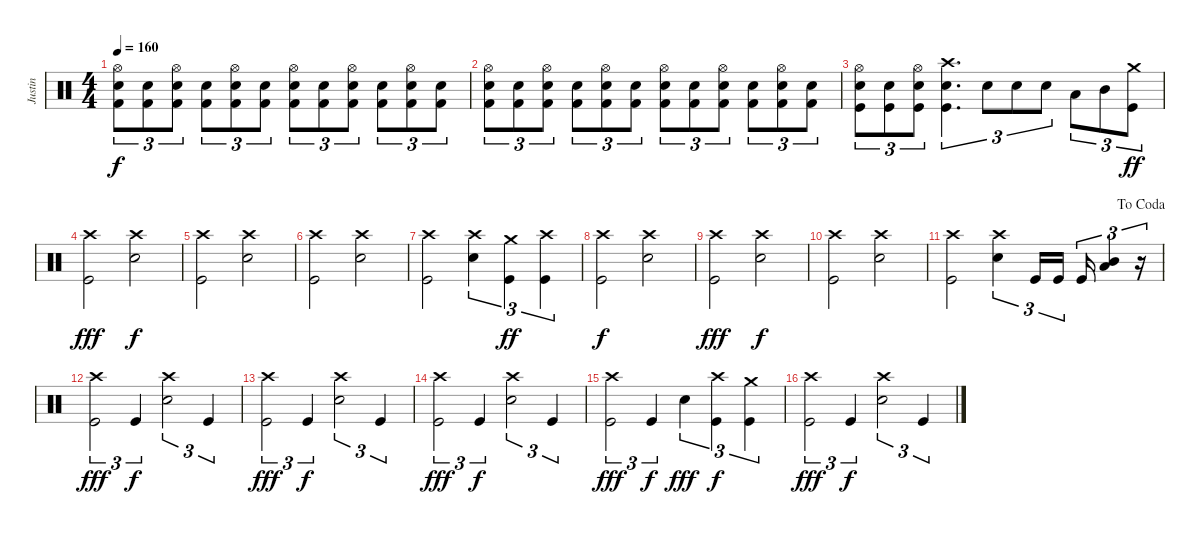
\track ("Justin" "Justin") {instrument percussion}
\staff {score}
\articulation defaults
\ts (4 4)
\tempo 160
\clef neutral
\ks c
("Hi-Hat (open)" "Snare (hit) 2" "Kick (hit) 2").8{tu (3 2) dy f} ("Snare (hit) 2" "Kick (hit) 2").8{tu (3 2)} ("Hi-Hat (open)" "Snare (hit) 2" "Kick (hit) 2").8{tu (3 2)} ("Snare (hit) 2" "Kick (hit) 2").8{tu (3 2)} ("Hi-Hat (open)" "Snare (hit) 2" "Kick (hit) 2").8{tu (3 2)} ("Snare (hit) 2" "Kick (hit) 2").8{tu (3 2)} ("Hi-Hat (open)" "Snare (hit) 2" "Kick (hit) 2").8{tu (3 2)} ("Snare (hit) 2" "Kick (hit) 2").8{tu (3 2)} ("Hi-Hat (open)" "Snare (hit) 2" "Kick (hit) 2").8{tu (3 2)} ("Snare (hit) 2" "Kick (hit) 2").8{tu (3 2)} ("Hi-Hat (open)" "Snare (hit) 2" "Kick (hit) 2").8{tu (3 2)} ("Snare (hit) 2" "Kick (hit) 2").8{tu (3 2)} |
("Hi-Hat (open)" "Snare (hit) 2" "Kick (hit) 2").8{tu (3 2)} ("Snare (hit) 2" "Kick (hit) 2").8{tu (3 2)} ("Hi-Hat (open)" "Snare (hit) 2" "Kick (hit) 2").8{tu (3 2)} ("Snare (hit) 2" "Kick (hit) 2").8{tu (3 2)} ("Hi-Hat (open)" "Snare (hit) 2" "Kick (hit) 2").8{tu (3 2)} ("Snare (hit) 2" "Kick (hit) 2").8{tu (3 2)} ("Hi-Hat (open)" "Snare (hit) 2" "Kick (hit) 2").8{tu (3 2)} ("Snare (hit) 2" "Kick (hit) 2").8{tu (3 2)} ("Hi-Hat (open)" "Snare (hit) 2" "Kick (hit) 2").8{tu (3 2)} ("Snare (hit) 2" "Kick (hit) 2").8{tu (3 2)} ("Hi-Hat (open)" "Snare (hit) 2" "Kick (hit) 2").8{tu (3 2)} ("Snare (hit) 2" "Kick (hit) 2").8{tu (3 2)} |
("Hi-Hat (open)" "Electric Snare (hit)" "Kick (hit)").8{tu (3 2)} ("Electric Snare (hit)" "Kick (hit)").8{tu (3 2)} ("Hi-Hat (open)" "Electric Snare (hit)" "Kick (hit)").8{tu (3 2)} ("Crash high (hit)" "Electric Snare (hit)" "Kick (hit)").4{d tu (3 2)} "Electric Snare (hit)".8{tu (3 2)} "Electric Snare (hit)".8{tu (3 2)} "Electric Snare (hit)".8{tu (3 2)} "Low Tom (hit)".8{tu (3 2)} "Mid Tom (hit)".8{tu (3 2)} ("Crash medium (hit)" "Kick (hit)").8{tu (3 2) dy ff} |
("Crash high (hit)" "Kick (hit)").2{dy fff} ("Crash high (hit)" "Electric Snare (hit)").2{dy f} |
("Crash high (hit)" "Kick (hit)").2 ("Crash high (hit)" "Electric Snare (hit)").2 |
("Crash high (hit)" "Kick (hit)").2 ("Crash high (hit)" "Electric Snare (hit)").2 |
("Crash high (hit)" "Kick (hit)").2 ("Crash high (hit)" "Electric Snare (hit)").4{tu (3 2)} ("Crash medium (hit)" "Kick (hit)").4{tu (3 2) dy ff} ("Crash high (hit)" "Kick (hit)").4{tu (3 2)} |
("Crash high (hit)" "Kick (hit)").2{dy f} ("Crash high (hit)" "Electric Snare (hit)").2 |
("Crash high (hit)" "Kick (hit)").2{dy fff} ("Crash high (hit)" "Electric Snare (hit)").2{dy f} |
("Crash high (hit)" "Kick (hit)").2 ("Crash high (hit)" "Electric Snare (hit)").2 |
\jump dacoda
("Crash high (hit)" "Kick (hit)").2 ("Crash high (hit)" "Electric Snare (hit)").4{tu (3 2)} "Kick (hit)".16{tu (3 2)} "Kick (hit)".16{tu (3 2)} "Kick (hit)".16{tu (3 2)} ("Mid Tom (hit)" "Low Tom (hit)").4{tu (3 2)} r.16{tu (3 2)} |
("Crash high (hit)" "Kick (hit)").2{tu (3 2) dy fff} "Kick (hit)".4{tu (3 2) dy f} ("Crash high (hit)" "Electric Snare (hit)").2{tu (3 2)} "Kick (hit)".4{tu (3 2)} |
("Crash high (hit)" "Kick (hit)").2{tu (3 2) dy fff} "Kick (hit)".4{tu (3 2) dy f} ("Crash high (hit)" "Electric Snare (hit)").2{tu (3 2)} "Kick (hit)".4{tu (3 2)} |
("Crash high (hit)" "Kick (hit)").2{tu (3 2) dy fff} "Kick (hit)".4{tu (3 2) dy f} ("Crash high (hit)" "Electric Snare (hit)").2{tu (3 2)} "Kick (hit)".4{tu (3 2)} |
("Crash high (hit)" "Kick (hit)").2{tu (3 2) dy fff} "Kick (hit)".4{tu (3 2) dy f} "Electric Snare (hit)".4{tu (3 2) dy fff} ("Crash high (hit)" "Kick (hit)").4{tu (3 2) dy f} ("Crash medium (hit)" "Kick (hit)").4{tu (3 2)} |
("Crash high (hit)" "Kick (hit)").2{tu (3 2) dy fff} "Kick (hit)".4{tu (3 2) dy f} ("Crash high (hit)" "Electric Snare (hit)").2{tu (3 2)} "Kick (hit)".4{tu (3 2)}
